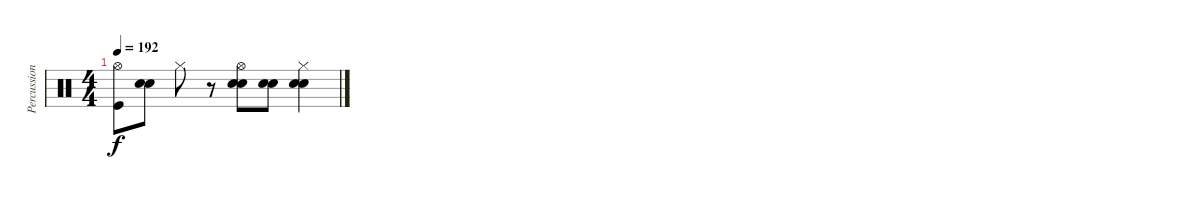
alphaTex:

\track ("Percussion" "Percussion") {instrument percussion}
\staff {score}
\articulation defaults
\ts (4 4)
\tempo 192
\clef neutral
\ks c
("Hi-Hat (open)" "Kick (hit)").8{dy f} ("Electric Snare (hit)" "Electric Snare (hit)").8 "Hi-Hat (closed)".8 r.8 ("Hi-Hat (open)" "Electric Snare (hit)" "Electric Snare (hit)").8 ("Electric Snare (hit)" "Electric Snare (hit)").8 ("Hi-Hat (closed)" "Electric Snare (hit)" "Electric Snare (hit)").4
